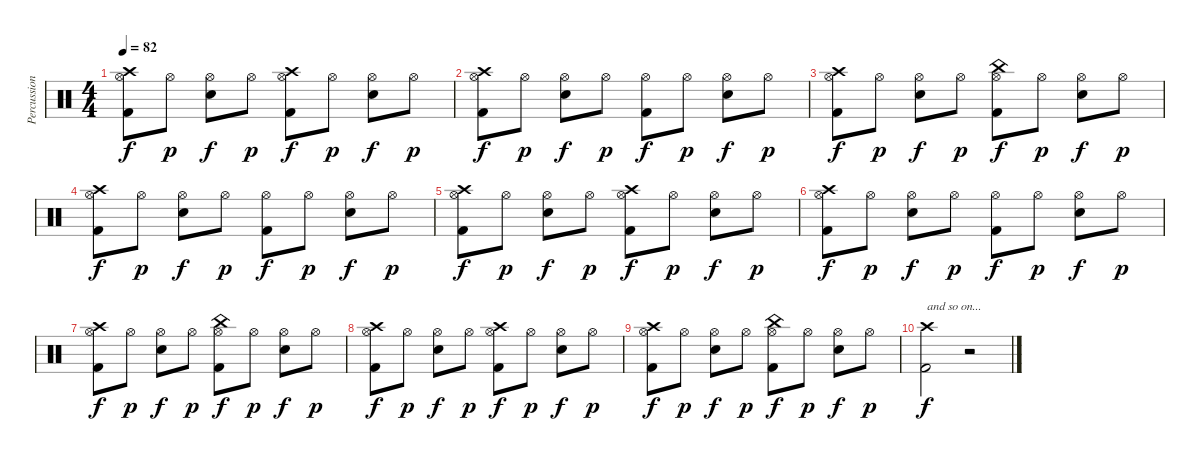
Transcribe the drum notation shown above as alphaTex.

\track ("Percussion" "Percussion") {instrument percussion}
\staff {score}
\articulation defaults
\ts (4 4)
\tempo 82
\clef neutral
\ks c
("Hi-Hat (open)" "Crash high (hit)" "Kick (hit) 2").8{dy f} "Hi-Hat (open)".8{dy p} ("Hi-Hat (open)" "Electric Snare (hit)").8{dy f} "Hi-Hat (open)".8{dy p} ("Hi-Hat (open)" "Crash high (hit)" "Kick (hit) 2").8{dy f} "Hi-Hat (open)".8{dy p} ("Hi-Hat (open)" "Electric Snare (hit)").8{dy f} "Hi-Hat (open)".8{dy p} |
("Hi-Hat (open)" "Crash high (hit)" "Kick (hit) 2").8{dy f} "Hi-Hat (open)".8{dy p} ("Hi-Hat (open)" "Electric Snare (hit)").8{dy f} "Hi-Hat (open)".8{dy p} ("Hi-Hat (open)" "Kick (hit) 2").8{dy f} "Hi-Hat (open)".8{dy p} ("Hi-Hat (open)" "Electric Snare (hit)").8{dy f} "Hi-Hat (open)".8{dy p} |
("Hi-Hat (open)" "Crash high (hit)" "Kick (hit) 2").8{dy f} "Hi-Hat (open)".8{dy p} ("Hi-Hat (open)" "Electric Snare (hit)").8{dy f} "Hi-Hat (open)".8{dy p} ("Hi-Hat (open)" "China (hit)" "Kick (hit) 2").8{dy f} "Hi-Hat (open)".8{dy p} ("Hi-Hat (open)" "Electric Snare (hit)").8{dy f} "Hi-Hat (open)".8{dy p} |
("Hi-Hat (open)" "Crash high (hit)" "Kick (hit) 2").8{dy f} "Hi-Hat (open)".8{dy p} ("Hi-Hat (open)" "Electric Snare (hit)").8{dy f} "Hi-Hat (open)".8{dy p} ("Hi-Hat (open)" "Kick (hit) 2").8{dy f} "Hi-Hat (open)".8{dy p} ("Hi-Hat (open)" "Electric Snare (hit)").8{dy f} "Hi-Hat (open)".8{dy p} |
("Hi-Hat (open)" "Crash high (hit)" "Kick (hit) 2").8{dy f} "Hi-Hat (open)".8{dy p} ("Hi-Hat (open)" "Electric Snare (hit)").8{dy f} "Hi-Hat (open)".8{dy p} ("Hi-Hat (open)" "Crash high (hit)" "Kick (hit) 2").8{dy f} "Hi-Hat (open)".8{dy p} ("Hi-Hat (open)" "Electric Snare (hit)").8{dy f} "Hi-Hat (open)".8{dy p} |
("Hi-Hat (open)" "Crash high (hit)" "Kick (hit) 2").8{dy f} "Hi-Hat (open)".8{dy p} ("Hi-Hat (open)" "Electric Snare (hit)").8{dy f} "Hi-Hat (open)".8{dy p} ("Hi-Hat (open)" "Kick (hit) 2").8{dy f} "Hi-Hat (open)".8{dy p} ("Hi-Hat (open)" "Electric Snare (hit)").8{dy f} "Hi-Hat (open)".8{dy p} |
("Hi-Hat (open)" "Crash high (hit)" "Kick (hit) 2").8{dy f} "Hi-Hat (open)".8{dy p} ("Hi-Hat (open)" "Electric Snare (hit)").8{dy f} "Hi-Hat (open)".8{dy p} ("Hi-Hat (open)" "China (hit)" "Kick (hit) 2").8{dy f} "Hi-Hat (open)".8{dy p} ("Hi-Hat (open)" "Electric Snare (hit)").8{dy f} "Hi-Hat (open)".8{dy p} |
("Hi-Hat (open)" "Crash high (hit)" "Kick (hit) 2").8{dy f} "Hi-Hat (open)".8{dy p} ("Hi-Hat (open)" "Electric Snare (hit)").8{dy f} "Hi-Hat (open)".8{dy p} ("Hi-Hat (open)" "Crash high (hit)" "Kick (hit) 2").8{dy f} "Hi-Hat (open)".8{dy p} ("Hi-Hat (open)" "Electric Snare (hit)").8{dy f} "Hi-Hat (open)".8{dy p} |
("Hi-Hat (open)" "Crash high (hit)" "Kick (hit) 2").8{dy f} "Hi-Hat (open)".8{dy p} ("Hi-Hat (open)" "Electric Snare (hit)").8{dy f} "Hi-Hat (open)".8{dy p} ("Hi-Hat (open)" "China (hit)" "Kick (hit) 2").8{dy f} "Hi-Hat (open)".8{dy p} ("Hi-Hat (open)" "Electric Snare (hit)").8{dy f} "Hi-Hat (open)".8{dy p} |
("Crash high (hit)" "Kick (hit) 2").2{txt "and so on..." dy f} r.2
